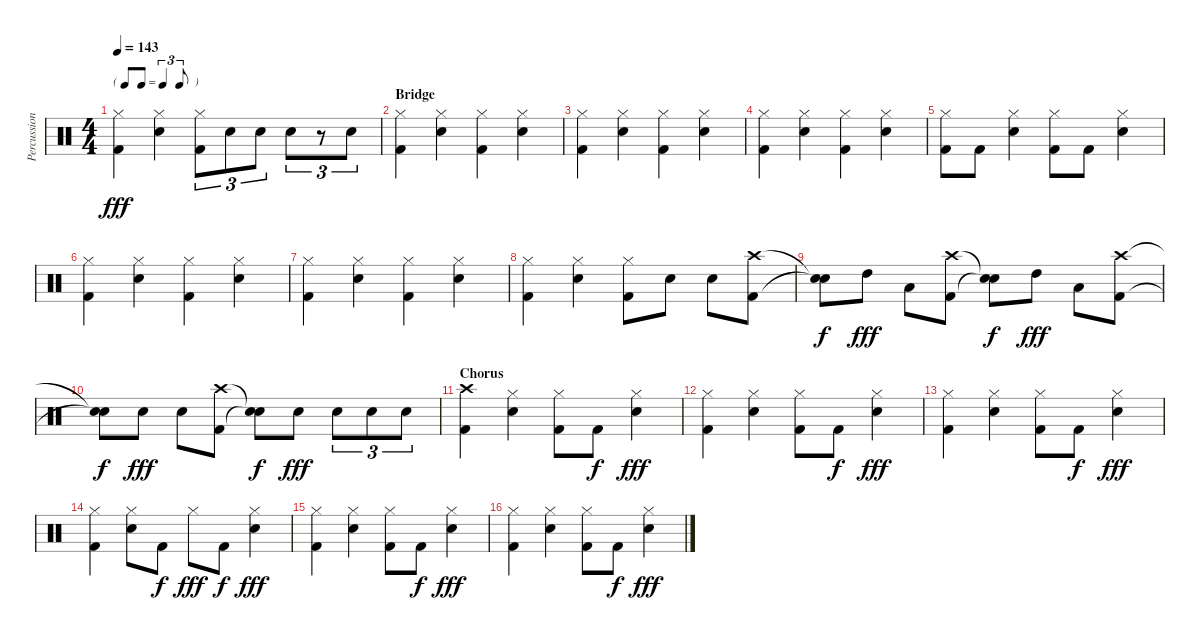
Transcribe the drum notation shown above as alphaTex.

\track ("Percussion" "Percussion") {instrument percussion}
\staff {score}
\articulation defaults
\ts (4 4)
\tf triplet8th
\tempo 143
\clef neutral
\ks c
("Hi-Hat (closed)" "Kick (hit) 2").4{dy fff} ("Hi-Hat (closed)" "Snare (hit) 2").4 ("Hi-Hat (closed)" "Kick (hit) 2").8{tu (3 2)} "Snare (hit) 2".8{tu (3 2)} "Snare (hit) 2".8{tu (3 2)} "Snare (hit) 2".8{tu (3 2)} r.8{tu (3 2)} "Snare (hit) 2".8{tu (3 2)} |
\section ("" "Bridge")
("Hi-Hat (closed)" "Kick (hit) 2").4 ("Hi-Hat (closed)" "Snare (hit) 2").4 ("Hi-Hat (closed)" "Kick (hit) 2").4 ("Hi-Hat (closed)" "Snare (hit) 2").4 |
("Hi-Hat (closed)" "Kick (hit) 2").4 ("Hi-Hat (closed)" "Snare (hit) 2").4 ("Hi-Hat (closed)" "Kick (hit) 2").4 ("Hi-Hat (closed)" "Snare (hit) 2").4 |
("Hi-Hat (closed)" "Kick (hit) 2").4 ("Hi-Hat (closed)" "Snare (hit) 2").4 ("Hi-Hat (closed)" "Kick (hit) 2").4 ("Hi-Hat (closed)" "Snare (hit) 2").4 |
("Hi-Hat (closed)" "Kick (hit) 2").8 "Kick (hit) 2".8 ("Hi-Hat (closed)" "Snare (hit) 2").4 ("Hi-Hat (closed)" "Kick (hit) 2").8 "Kick (hit) 2".8 ("Hi-Hat (closed)" "Snare (hit) 2").4 |
("Hi-Hat (closed)" "Kick (hit) 2").4 ("Hi-Hat (closed)" "Snare (hit) 2").4 ("Hi-Hat (closed)" "Kick (hit) 2").4 ("Hi-Hat (closed)" "Snare (hit) 2").4 |
("Hi-Hat (closed)" "Kick (hit) 2").4 ("Hi-Hat (closed)" "Snare (hit) 2").4 ("Hi-Hat (closed)" "Kick (hit) 2").4 ("Hi-Hat (closed)" "Snare (hit) 2").4 |
("Hi-Hat (closed)" "Kick (hit) 2").4 ("Hi-Hat (closed)" "Snare (hit) 2").4 ("Hi-Hat (closed)" "Kick (hit) 2").8 "Snare (hit) 2".8 "Snare (hit) 2".8 ("Crash high (hit)" "Kick (hit) 2").8 |
("Snare (hit)"{t} "Snare (hit)"{t}).8{dy f} "High Tom (hit)".8{dy fff} "Low Tom (hit)".8 ("Crash high (hit)" "Kick (hit) 2").8 ("Snare (hit)"{t} "Snare (hit)"{t}).8{dy f} "High Tom (hit)".8{dy fff} "Low Tom (hit)".8 ("Crash high (hit)" "Kick (hit) 2").8 |
("Snare (hit)"{t} "Snare (hit)"{t}).8{dy f} "Snare (hit) 2".8{dy fff} "Snare (hit) 2".8 ("Crash high (hit)" "Kick (hit) 2").8 ("Snare (hit)"{t} "Snare (hit)"{t}).8{dy f} "Snare (hit) 2".8{dy fff} "Snare (hit) 2".8{tu (3 2)} "Snare (hit) 2".8{tu (3 2)} "Snare (hit) 2".8{tu (3 2)} |
\section ("" "Chorus")
("Crash high (hit)" "Kick (hit) 2").4 ("Hi-Hat (closed)" "Snare (hit) 2").4 ("Hi-Hat (closed)" "Kick (hit) 2").8 "Kick (hit) 2".8{dy f} ("Hi-Hat (closed)" "Snare (hit) 2").4{dy fff} |
("Hi-Hat (closed)" "Kick (hit) 2").4 ("Hi-Hat (closed)" "Snare (hit) 2").4 ("Hi-Hat (closed)" "Kick (hit) 2").8 "Kick (hit) 2".8{dy f} ("Hi-Hat (closed)" "Snare (hit) 2").4{dy fff} |
("Hi-Hat (closed)" "Kick (hit) 2").4 ("Hi-Hat (closed)" "Snare (hit) 2").4 ("Hi-Hat (closed)" "Kick (hit) 2").8 "Kick (hit) 2".8{dy f} ("Hi-Hat (closed)" "Snare (hit) 2").4{dy fff} |
("Hi-Hat (closed)" "Kick (hit) 2").4 ("Hi-Hat (closed)" "Snare (hit) 2").8 "Kick (hit) 2".8{dy f} "Hi-Hat (closed)".8{dy fff} "Kick (hit) 2".8{dy f} ("Hi-Hat (closed)" "Snare (hit) 2").4{dy fff} |
("Hi-Hat (closed)" "Kick (hit) 2").4 ("Hi-Hat (closed)" "Snare (hit) 2").4 ("Hi-Hat (closed)" "Kick (hit) 2").8 "Kick (hit) 2".8{dy f} ("Hi-Hat (closed)" "Snare (hit) 2").4{dy fff} |
("Hi-Hat (closed)" "Kick (hit) 2").4 ("Hi-Hat (closed)" "Snare (hit) 2").4 ("Hi-Hat (closed)" "Kick (hit) 2").8 "Kick (hit) 2".8{dy f} ("Hi-Hat (closed)" "Snare (hit) 2").4{dy fff}
